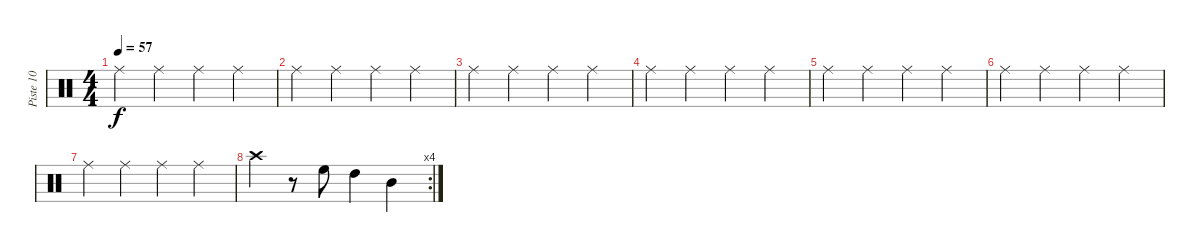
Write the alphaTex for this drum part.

\track ("Piste 10" "Piste 10") {instrument percussion}
\staff {score}
\articulation defaults
\ts (4 4)
\tempo 57
\clef neutral
\ks c "Ride (middle)".4{dy f} "Ride (middle)".4 "Ride (middle)".4 "Ride (middle)".4
|
"Ride (middle)".4 "Ride (middle)".4 "Ride (middle)".4 "Ride (middle)".4 |
"Ride (middle)".4 "Ride (middle)".4 "Ride (middle)".4 "Ride (middle)".4 |
"Ride (middle)".4 "Ride (middle)".4 "Ride (middle)".4 "Ride (middle)".4 |
"Ride (middle)".4 "Ride (middle)".4 "Ride (middle)".4 "Ride (middle)".4 |
"Ride (middle)".4 "Ride (middle)".4 "Ride (middle)".4 "Ride (middle)".4 |
"Ride (middle)".4 "Ride (middle)".4 "Ride (middle)".4 "Ride (middle)".4 |
\rc 4 "Crash high (hit)".4
r.8 "High Floor Tom (hit)".8 "High Tom (hit)".4 "Mid Tom (hit)".4
